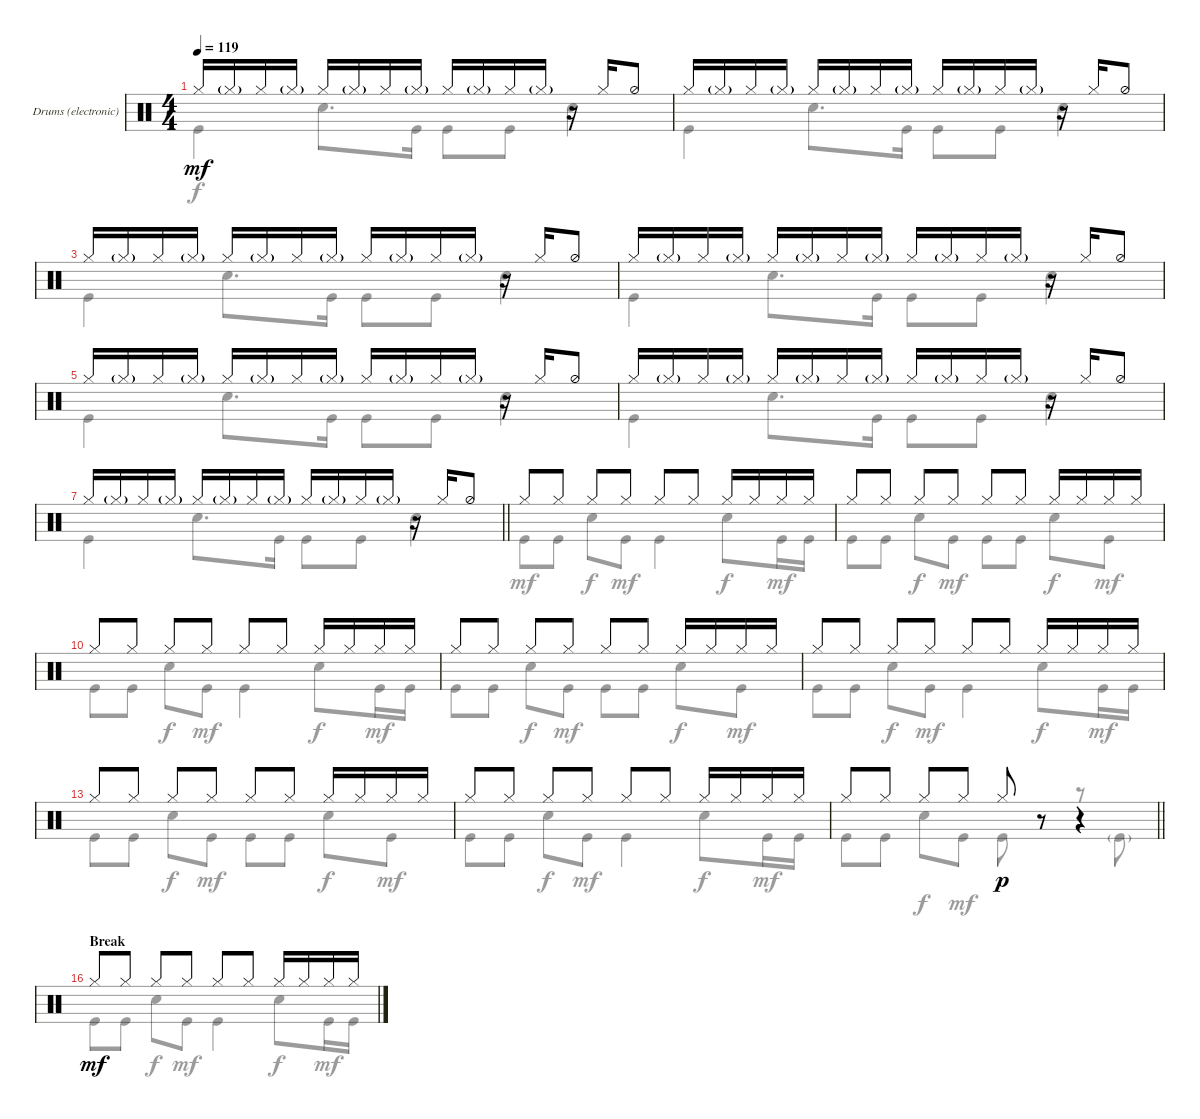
\defaultSystemsLayout 4
\bracketExtendMode groupsimilarinstruments
\useSystemSignSeparator
\multiBarRest
\multiTrackTrackNamePolicy allsystems
\firstSystemTrackNameMode fullname
\firstSystemTrackNameOrientation horizontal
\otherSystemsTrackNameOrientation horizontal
\defaultBarNumberDisplay FirstOfSystem
\track ("Drums (electronic)" "Dr.") {multiBarRest instrument percussion}
\staff {score}
\articulation defaults
\voice
\ts (4 4)
\tempo 119
\clef neutral
\ks aminor "Hi-Hat (closed)".16{dy mf} "Hi-Hat (closed)"{g}.16 "Hi-Hat (closed)".16 "Hi-Hat (closed)"{g}.16 "Hi-Hat (closed)".16 "Hi-Hat (closed)"{g}.16 "Hi-Hat (closed)".16 "Hi-Hat (closed)"{g}.16 "Hi-Hat (closed)".16 "Hi-Hat (closed)"{g}.16 "Hi-Hat (closed)".16 "Hi-Hat (closed)"{g}.16
r.16 "Hi-Hat (closed)".16 "Hi-Hat (half)".8 |
"Hi-Hat (closed)".16 "Hi-Hat (closed)"{g}.16 "Hi-Hat (closed)".16 "Hi-Hat (closed)"{g}.16 "Hi-Hat (closed)".16 "Hi-Hat (closed)"{g}.16 "Hi-Hat (closed)".16 "Hi-Hat (closed)"{g}.16 "Hi-Hat (closed)".16 "Hi-Hat (closed)"{g}.16 "Hi-Hat (closed)".16 "Hi-Hat (closed)"{g}.16 r.16 "Hi-Hat (closed)".16 "Hi-Hat (half)".8 |
"Hi-Hat (closed)".16 "Hi-Hat (closed)"{g}.16 "Hi-Hat (closed)".16 "Hi-Hat (closed)"{g}.16 "Hi-Hat (closed)".16 "Hi-Hat (closed)"{g}.16 "Hi-Hat (closed)".16 "Hi-Hat (closed)"{g}.16 "Hi-Hat (closed)".16 "Hi-Hat (closed)"{g}.16 "Hi-Hat (closed)".16 "Hi-Hat (closed)"{g}.16 r.16 "Hi-Hat (closed)".16 "Hi-Hat (half)".8 |
"Hi-Hat (closed)".16 "Hi-Hat (closed)"{g}.16 "Hi-Hat (closed)".16 "Hi-Hat (closed)"{g}.16 "Hi-Hat (closed)".16 "Hi-Hat (closed)"{g}.16 "Hi-Hat (closed)".16 "Hi-Hat (closed)"{g}.16 "Hi-Hat (closed)".16 "Hi-Hat (closed)"{g}.16 "Hi-Hat (closed)".16 "Hi-Hat (closed)"{g}.16 r.16 "Hi-Hat (closed)".16 "Hi-Hat (half)".8 |
"Hi-Hat (closed)".16 "Hi-Hat (closed)"{g}.16 "Hi-Hat (closed)".16 "Hi-Hat (closed)"{g}.16 "Hi-Hat (closed)".16 "Hi-Hat (closed)"{g}.16 "Hi-Hat (closed)".16 "Hi-Hat (closed)"{g}.16 "Hi-Hat (closed)".16 "Hi-Hat (closed)"{g}.16 "Hi-Hat (closed)".16 "Hi-Hat (closed)"{g}.16 r.16 "Hi-Hat (closed)".16 "Hi-Hat (half)".8 |
"Hi-Hat (closed)".16 "Hi-Hat (closed)"{g}.16 "Hi-Hat (closed)".16 "Hi-Hat (closed)"{g}.16 "Hi-Hat (closed)".16 "Hi-Hat (closed)"{g}.16 "Hi-Hat (closed)".16 "Hi-Hat (closed)"{g}.16 "Hi-Hat (closed)".16 "Hi-Hat (closed)"{g}.16 "Hi-Hat (closed)".16 "Hi-Hat (closed)"{g}.16 r.16 "Hi-Hat (closed)".16 "Hi-Hat (half)".8 |
\barLineRight lightlight "Hi-Hat (closed)".16 "Hi-Hat (closed)"{g}.16 "Hi-Hat (closed)".16 "Hi-Hat (closed)"{g}.16 "Hi-Hat (closed)".16 "Hi-Hat (closed)"{g}.16 "Hi-Hat (closed)".16 "Hi-Hat (closed)"{g}.16 "Hi-Hat (closed)".16 "Hi-Hat (closed)"{g}.16 "Hi-Hat (closed)".16 "Hi-Hat (closed)"{g}.16
r.16 "Hi-Hat (closed)".16 "Hi-Hat (half)".8 |
"Hi-Hat (closed)".8 "Hi-Hat (closed)".8 "Hi-Hat (closed)".8 "Hi-Hat (closed)".8 "Hi-Hat (closed)".8 "Hi-Hat (closed)".8 "Hi-Hat (closed)".16 "Hi-Hat (closed)".16 "Hi-Hat (closed)".16 "Hi-Hat (closed)".16 |
"Hi-Hat (closed)".8 "Hi-Hat (closed)".8 "Hi-Hat (closed)".8 "Hi-Hat (closed)".8 "Hi-Hat (closed)".8 "Hi-Hat (closed)".8 "Hi-Hat (closed)".16 "Hi-Hat (closed)".16 "Hi-Hat (closed)".16 "Hi-Hat (closed)".16 |
"Hi-Hat (closed)".8 "Hi-Hat (closed)".8 "Hi-Hat (closed)".8 "Hi-Hat (closed)".8 "Hi-Hat (closed)".8 "Hi-Hat (closed)".8 "Hi-Hat (closed)".16 "Hi-Hat (closed)".16 "Hi-Hat (closed)".16 "Hi-Hat (closed)".16 |
"Hi-Hat (closed)".8 "Hi-Hat (closed)".8 "Hi-Hat (closed)".8 "Hi-Hat (closed)".8 "Hi-Hat (closed)".8 "Hi-Hat (closed)".8 "Hi-Hat (closed)".16 "Hi-Hat (closed)".16 "Hi-Hat (closed)".16 "Hi-Hat (closed)".16 |
"Hi-Hat (closed)".8 "Hi-Hat (closed)".8 "Hi-Hat (closed)".8 "Hi-Hat (closed)".8 "Hi-Hat (closed)".8 "Hi-Hat (closed)".8 "Hi-Hat (closed)".16 "Hi-Hat (closed)".16 "Hi-Hat (closed)".16 "Hi-Hat (closed)".16 |
"Hi-Hat (closed)".8 "Hi-Hat (closed)".8 "Hi-Hat (closed)".8 "Hi-Hat (closed)".8 "Hi-Hat (closed)".8 "Hi-Hat (closed)".8 "Hi-Hat (closed)".16 "Hi-Hat (closed)".16 "Hi-Hat (closed)".16 "Hi-Hat (closed)".16 |
"Hi-Hat (closed)".8 "Hi-Hat (closed)".8 "Hi-Hat (closed)".8 "Hi-Hat (closed)".8 "Hi-Hat (closed)".8 "Hi-Hat (closed)".8 "Hi-Hat (closed)".16 "Hi-Hat (closed)".16 "Hi-Hat (closed)".16 "Hi-Hat (closed)".16 |
\barLineRight lightlight "Hi-Hat (closed)".8 "Hi-Hat (closed)".8 "Hi-Hat (closed)".8 "Hi-Hat (closed)".8 "Hi-Hat (closed)".8{dy p}
r.8 r.4 |
\section ("" "Break")
"Hi-Hat (closed)".8{dy mf} "Hi-Hat (closed)".8 "Hi-Hat (closed)".8 "Hi-Hat (closed)".8 "Hi-Hat (closed)".8 "Hi-Hat (closed)".8 "Hi-Hat (closed)".16 "Hi-Hat (closed)".16 "Hi-Hat (closed)".16 "Hi-Hat (closed)".16
\voice
\clef neutral
\ottava regular
\simile none
\ks aminor "Kick (hit)".4{dy f} "Snare (hit) 2".8{d} "Kick (hit)".16 "Kick (hit)".8 "Kick (hit)".8 "Snare (hit) 2".4
|
"Kick (hit)".4 "Snare (hit) 2".8{d} "Kick (hit)".16 "Kick (hit)".8 "Kick (hit)".8 "Snare (hit) 2".4 |
"Kick (hit)".4 "Snare (hit) 2".8{d} "Kick (hit)".16 "Kick (hit)".8 "Kick (hit)".8 "Snare (hit) 2".4 |
"Kick (hit)".4 "Snare (hit) 2".8{d} "Kick (hit)".16 "Kick (hit)".8 "Kick (hit)".8 "Snare (hit) 2".4 |
"Kick (hit)".4 "Snare (hit) 2".8{d} "Kick (hit)".16 "Kick (hit)".8 "Kick (hit)".8 "Snare (hit) 2".4 |
"Kick (hit)".4 "Snare (hit) 2".8{d} "Kick (hit)".16 "Kick (hit)".8 "Kick (hit)".8 "Snare (hit) 2".4 |
\barLineRight lightlight "Kick (hit)".4 "Snare (hit) 2".8{d} "Kick (hit)".16 "Kick (hit)".8 "Kick (hit)".8 "Snare (hit) 2".4
|
"Kick (hit)".8{dy mf} "Kick (hit)".8 "Snare (hit) 2".8{dy f} "Kick (hit)".8{dy mf} "Kick (hit)".4 "Snare (hit) 2".8{dy f} "Kick (hit)".16{dy mf} "Kick (hit)".16 |
"Kick (hit)".8 "Kick (hit)".8 "Snare (hit) 2".8{dy f} "Kick (hit)".8{dy mf} "Kick (hit)".8 "Kick (hit)".8 "Snare (hit) 2".8{dy f} "Kick (hit)".8{dy mf} |
"Kick (hit)".8 "Kick (hit)".8 "Snare (hit) 2".8{dy f} "Kick (hit)".8{dy mf} "Kick (hit)".4 "Snare (hit) 2".8{dy f} "Kick (hit)".16{dy mf} "Kick (hit)".16 |
"Kick (hit)".8 "Kick (hit)".8 "Snare (hit) 2".8{dy f} "Kick (hit)".8{dy mf} "Kick (hit)".8 "Kick (hit)".8 "Snare (hit) 2".8{dy f} "Kick (hit)".8{dy mf} |
"Kick (hit)".8 "Kick (hit)".8 "Snare (hit) 2".8{dy f} "Kick (hit)".8{dy mf} "Kick (hit)".4 "Snare (hit) 2".8{dy f} "Kick (hit)".16{dy mf} "Kick (hit)".16 |
"Kick (hit)".8 "Kick (hit)".8 "Snare (hit) 2".8{dy f} "Kick (hit)".8{dy mf} "Kick (hit)".8 "Kick (hit)".8 "Snare (hit) 2".8{dy f} "Kick (hit)".8{dy mf} |
"Kick (hit)".8 "Kick (hit)".8 "Snare (hit) 2".8{dy f} "Kick (hit)".8{dy mf} "Kick (hit)".4 "Snare (hit) 2".8{dy f} "Kick (hit)".16{dy mf} "Kick (hit)".16 |
\barLineRight lightlight "Kick (hit)".8 "Kick (hit)".8 "Snare (hit) 2".8{dy f} "Kick (hit)".8{dy mf} "Kick (hit)".8
r.8 r.8 "Kick (hit)"{g}.8 |
"Kick (hit)".8 "Kick (hit)".8 "Snare (hit) 2".8{dy f} "Kick (hit)".8{dy mf} "Kick (hit)".4 "Snare (hit) 2".8{dy f} "Kick (hit)".16{dy mf} "Kick (hit)".16
